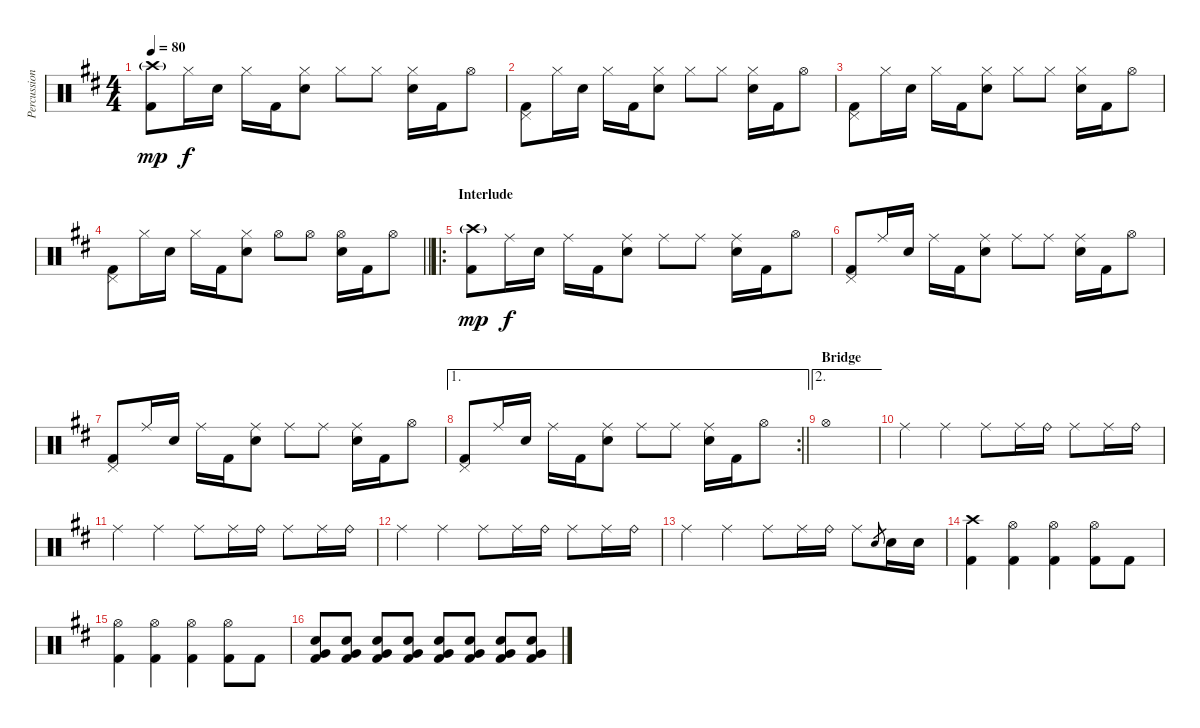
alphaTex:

\track ("Percussion" "Percussion") {instrument percussion}
\staff {score}
\articulation defaults
\ts (4 4)
\tempo 80
\clef neutral
\ks d
("Crash high (hit)"{g} "Kick (hit) 2").8{dy mp} "Hi-Hat (closed)".16{dy f} "Electric Snare (hit)".16 "Hi-Hat (closed)".16 "Kick (hit) 2".16 ("Hi-Hat (closed)" "Electric Snare (hit)").8 "Hi-Hat (closed)".8 "Hi-Hat (closed)".8 ("Hi-Hat (closed)" "Electric Snare (hit)").16 "Kick (hit) 2".16 "Hi-Hat (open)".8 |
("Pedal Hi-Hat (hit)" "Kick (hit) 2").8 "Hi-Hat (closed)".16 "Electric Snare (hit)".16 "Hi-Hat (closed)".16 "Kick (hit) 2".16 ("Hi-Hat (closed)" "Electric Snare (hit)").8 "Hi-Hat (closed)".8 "Hi-Hat (closed)".8 ("Hi-Hat (closed)" "Electric Snare (hit)").16 "Kick (hit) 2".16 "Hi-Hat (open)".8 |
("Pedal Hi-Hat (hit)" "Kick (hit) 2").8 "Hi-Hat (closed)".16 "Electric Snare (hit)".16 "Hi-Hat (closed)".16 "Kick (hit) 2".16 ("Hi-Hat (closed)" "Electric Snare (hit)").8 "Hi-Hat (closed)".8 "Hi-Hat (closed)".8 ("Hi-Hat (closed)" "Electric Snare (hit)").16 "Kick (hit) 2".16 "Hi-Hat (open)".8 |
\barLineRight lightlight
("Pedal Hi-Hat (hit)" "Kick (hit) 2").8 "Hi-Hat (closed)".16 "Electric Snare (hit)".16 "Hi-Hat (closed)".16 "Kick (hit) 2".16 ("Hi-Hat (closed)" "Electric Snare (hit)").8 "Hi-Hat (open)".8 "Hi-Hat (open)".8 ("Hi-Hat (open)" "Electric Snare (hit)").16 "Kick (hit) 2".16 "Hi-Hat (open)".8 |
\ro
\section ("" "Interlude")
("Crash high (hit)"{g} "Kick (hit) 2").8{dy mp} "Ride (middle)".16{dy f} "Electric Snare (hit)".16 "Ride (middle)".16 "Kick (hit) 2".16 ("Ride (middle)" "Electric Snare (hit)").8 "Ride (middle)".8 "Ride (middle)".8 ("Ride (middle)" "Electric Snare (hit)").16 "Kick (hit) 2".16 "Hi-Hat (open)".8 |
("Pedal Hi-Hat (hit)" "Kick (hit) 2").8 "Ride (middle)".16 "Electric Snare (hit)".16 "Ride (middle)".16 "Kick (hit) 2".16 ("Ride (middle)" "Electric Snare (hit)").8 "Ride (middle)".8 "Ride (middle)".8 ("Ride (middle)" "Electric Snare (hit)").16 "Kick (hit) 2".16 "Hi-Hat (open)".8 |
("Pedal Hi-Hat (hit)" "Kick (hit) 2").8 "Ride (middle)".16 "Electric Snare (hit)".16 "Ride (middle)".16 "Kick (hit) 2".16 ("Ride (middle)" "Electric Snare (hit)").8 "Ride (middle)".8 "Ride (middle)".8 ("Ride (middle)" "Electric Snare (hit)").16 "Kick (hit) 2".16 "Hi-Hat (open)".8 |
\ae 1
\rc 2
\barLineRight lightlight
("Pedal Hi-Hat (hit)" "Kick (hit) 2").8 "Ride (middle)".16 "Electric Snare (hit)".16 "Ride (middle)".16 "Kick (hit) 2".16 ("Ride (middle)" "Electric Snare (hit)").8 "Ride (middle)".8 "Ride (middle)".8 ("Ride (middle)" "Electric Snare (hit)").16 "Kick (hit) 2".16 "Hi-Hat (open)".8 |
\ae 2
\section ("" "Bridge")
"Hi-Hat (open)".1 |
"Ride (middle)".4 "Ride (middle)".4 "Ride (middle)".8 "Ride (middle)".16 "Ride (bell)".16 "Ride (middle)".8 "Ride (middle)".16 "Ride (bell)".16 |
"Ride (middle)".4 "Ride (middle)".4 "Ride (middle)".8 "Ride (middle)".16 "Ride (bell)".16 "Ride (middle)".8 "Ride (middle)".16 "Ride (bell)".16 |
"Ride (middle)".4 "Ride (middle)".4 "Ride (middle)".8 "Ride (middle)".16 "Ride (bell)".16 "Ride (middle)".8 "Ride (middle)".16 "Ride (bell)".16 |
"Ride (middle)".4 "Ride (middle)".4 "Ride (middle)".8 "Ride (middle)".16 "Ride (bell)".16 "Ride (middle)".8 "Electric Snare (hit)".8{gr} "Electric Snare (hit)".16 "Electric Snare (hit)".16 |
("Crash high (hit)" "Kick (hit) 2").4 ("Hi-Hat (open)" "Kick (hit) 2").4 ("Hi-Hat (open)" "Kick (hit) 2").4 ("Hi-Hat (open)" "Kick (hit) 2").8 "Kick (hit) 2".8 |
("Hi-Hat (open)" "Kick (hit) 2").4 ("Hi-Hat (open)" "Kick (hit) 2").4 ("Hi-Hat (open)" "Kick (hit) 2").4 ("Hi-Hat (open)" "Kick (hit) 2").8 "Kick (hit) 2".8 |
("Electric Snare (hit)" "Very Low Tom (hit)" "Kick (hit) 2").8 ("Electric Snare (hit)" "Very Low Tom (hit)" "Kick (hit) 2").8 ("Electric Snare (hit)" "Very Low Tom (hit)" "Kick (hit) 2").8 ("Electric Snare (hit)" "Very Low Tom (hit)" "Kick (hit) 2").8 ("Electric Snare (hit)" "Very Low Tom (hit)" "Kick (hit) 2").8 ("Electric Snare (hit)" "Very Low Tom (hit)" "Kick (hit) 2").8 ("Electric Snare (hit)" "Very Low Tom (hit)" "Kick (hit) 2").8 ("Electric Snare (hit)" "Very Low Tom (hit)" "Kick (hit) 2").8
